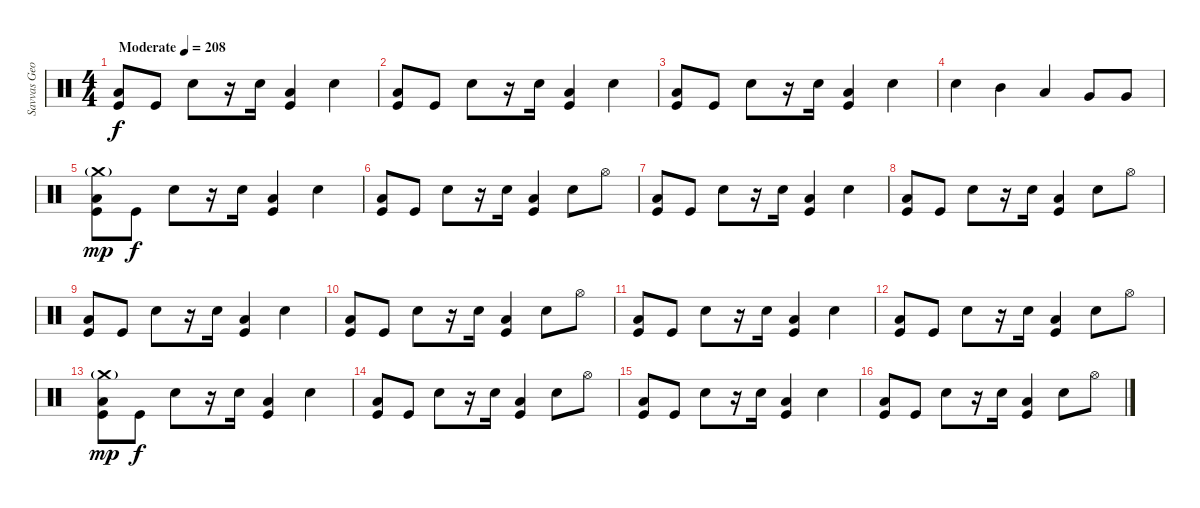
\track ("Savvas Georgiadis" "Savvas Geo") {instrument percussion}
\staff {score}
\articulation defaults
\ts (4 4)
\tempo (208 "Moderate")
\clef neutral
\ks c
("Low Tom (hit)" "Kick (hit)").8{dy f} "Kick (hit)".8 "Electric Snare (hit)".8 r.16 "Electric Snare (hit)".16 ("Low Tom (hit)" "Kick (hit)").4 "Electric Snare (hit)".4 |
("Low Tom (hit)" "Kick (hit)").8 "Kick (hit)".8 "Electric Snare (hit)".8 r.16 "Electric Snare (hit)".16 ("Low Tom (hit)" "Kick (hit)").4 "Electric Snare (hit)".4 |
("Low Tom (hit)" "Kick (hit)").8 "Kick (hit)".8 "Electric Snare (hit)".8 r.16 "Electric Snare (hit)".16 ("Low Tom (hit)" "Kick (hit)").4 "Electric Snare (hit)".4 |
"Electric Snare (hit)".4 "Mid Tom (hit)".4 "Low Tom (hit)".4 "Very Low Tom (hit)".8 "Very Low Tom (hit)".8 |
("Crash medium (hit)"{g} "Low Tom (hit)" "Kick (hit)").8{dy mp} "Kick (hit)".8{dy f} "Electric Snare (hit)".8 r.16 "Electric Snare (hit)".16 ("Low Tom (hit)" "Kick (hit)").4 "Electric Snare (hit)".4 |
("Low Tom (hit)" "Kick (hit)").8 "Kick (hit)".8 "Electric Snare (hit)".8 r.16 "Electric Snare (hit)".16 ("Low Tom (hit)" "Kick (hit)").4 "Electric Snare (hit)".8 "Hi-Hat (open)".8 |
("Low Tom (hit)" "Kick (hit)").8 "Kick (hit)".8 "Electric Snare (hit)".8 r.16 "Electric Snare (hit)".16 ("Low Tom (hit)" "Kick (hit)").4 "Electric Snare (hit)".4 |
("Low Tom (hit)" "Kick (hit)").8 "Kick (hit)".8 "Electric Snare (hit)".8 r.16 "Electric Snare (hit)".16 ("Low Tom (hit)" "Kick (hit)").4 "Electric Snare (hit)".8 "Hi-Hat (open)".8 |
("Low Tom (hit)" "Kick (hit)").8 "Kick (hit)".8 "Electric Snare (hit)".8 r.16 "Electric Snare (hit)".16 ("Low Tom (hit)" "Kick (hit)").4 "Electric Snare (hit)".4 |
("Low Tom (hit)" "Kick (hit)").8 "Kick (hit)".8 "Electric Snare (hit)".8 r.16 "Electric Snare (hit)".16 ("Low Tom (hit)" "Kick (hit)").4 "Electric Snare (hit)".8 "Hi-Hat (open)".8 |
("Low Tom (hit)" "Kick (hit)").8 "Kick (hit)".8 "Electric Snare (hit)".8 r.16 "Electric Snare (hit)".16 ("Low Tom (hit)" "Kick (hit)").4 "Electric Snare (hit)".4 |
("Low Tom (hit)" "Kick (hit)").8 "Kick (hit)".8 "Electric Snare (hit)".8 r.16 "Electric Snare (hit)".16 ("Low Tom (hit)" "Kick (hit)").4 "Electric Snare (hit)".8 "Hi-Hat (open)".8 |
("Crash medium (hit)"{g} "Low Tom (hit)" "Kick (hit)").8{dy mp} "Kick (hit)".8{dy f} "Electric Snare (hit)".8 r.16 "Electric Snare (hit)".16 ("Low Tom (hit)" "Kick (hit)").4 "Electric Snare (hit)".4 |
("Low Tom (hit)" "Kick (hit)").8 "Kick (hit)".8 "Electric Snare (hit)".8 r.16 "Electric Snare (hit)".16 ("Low Tom (hit)" "Kick (hit)").4 "Electric Snare (hit)".8 "Hi-Hat (open)".8 |
("Low Tom (hit)" "Kick (hit)").8 "Kick (hit)".8 "Electric Snare (hit)".8 r.16 "Electric Snare (hit)".16 ("Low Tom (hit)" "Kick (hit)").4 "Electric Snare (hit)".4 |
("Low Tom (hit)" "Kick (hit)").8 "Kick (hit)".8 "Electric Snare (hit)".8 r.16 "Electric Snare (hit)".16 ("Low Tom (hit)" "Kick (hit)").4 "Electric Snare (hit)".8 "Hi-Hat (open)".8
